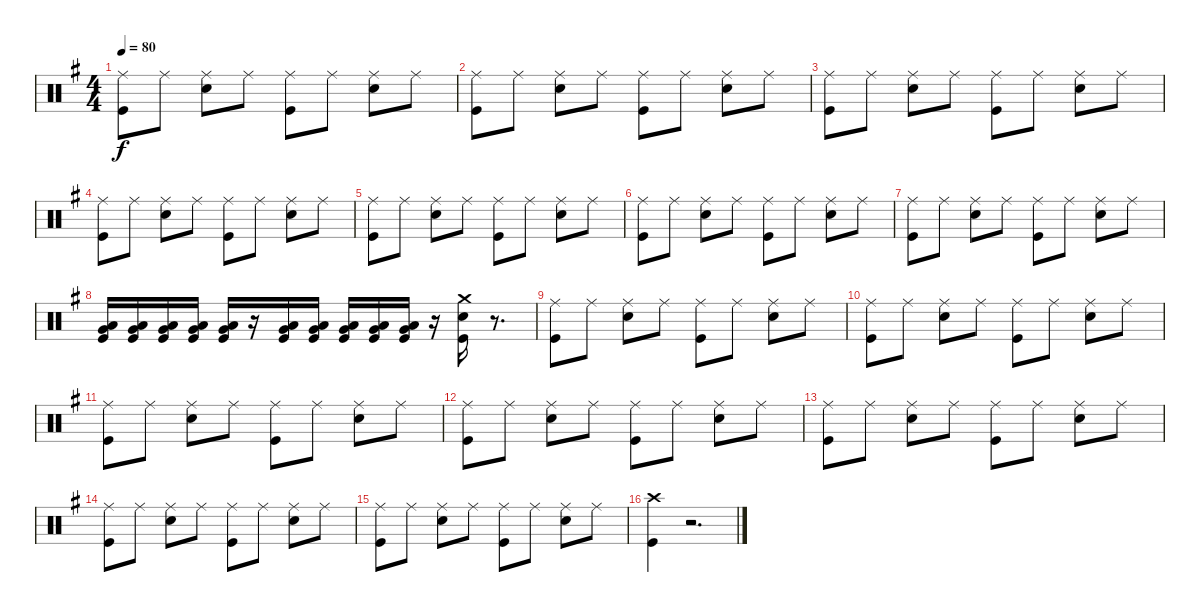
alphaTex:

\track "" {instrument percussion}
\staff {score}
\articulation defaults
\ts (4 4)
\tempo 80
\clef neutral
\ks g
("Ride (middle)" "Kick (hit)").8{dy f} "Ride (middle)".8 ("Ride (middle)" "Snare (hit) 2").8 "Ride (middle)".8 ("Ride (middle)" "Kick (hit)").8 "Ride (middle)".8 ("Ride (middle)" "Snare (hit) 2").8 "Ride (middle)".8 |
("Ride (middle)" "Kick (hit)").8 "Ride (middle)".8 ("Ride (middle)" "Snare (hit) 2").8 "Ride (middle)".8 ("Ride (middle)" "Kick (hit)").8 "Ride (middle)".8 ("Ride (middle)" "Snare (hit) 2").8 "Ride (middle)".8 |
("Ride (middle)" "Kick (hit)").8 "Ride (middle)".8 ("Ride (middle)" "Snare (hit) 2").8 "Ride (middle)".8 ("Ride (middle)" "Kick (hit)").8 "Ride (middle)".8 ("Ride (middle)" "Snare (hit) 2").8 "Ride (middle)".8 |
("Ride (middle)" "Kick (hit)").8 "Ride (middle)".8 ("Ride (middle)" "Snare (hit) 2").8 "Ride (middle)".8 ("Ride (middle)" "Kick (hit)").8 "Ride (middle)".8 ("Ride (middle)" "Snare (hit) 2").8 "Ride (middle)".8 |
("Ride (middle)" "Kick (hit)").8 "Ride (middle)".8 ("Ride (middle)" "Snare (hit) 2").8 "Ride (middle)".8 ("Ride (middle)" "Kick (hit)").8 "Ride (middle)".8 ("Ride (middle)" "Snare (hit) 2").8 "Ride (middle)".8 |
("Ride (middle)" "Kick (hit)").8 "Ride (middle)".8 ("Ride (middle)" "Snare (hit) 2").8 "Ride (middle)".8 ("Ride (middle)" "Kick (hit)").8 "Ride (middle)".8 ("Ride (middle)" "Snare (hit) 2").8 "Ride (middle)".8 |
("Ride (middle)" "Kick (hit)").8 "Ride (middle)".8 ("Ride (middle)" "Snare (hit) 2").8 "Ride (middle)".8 ("Ride (middle)" "Kick (hit)").8 "Ride (middle)".8 ("Ride (middle)" "Snare (hit) 2").8 "Ride (middle)".8 |
("Very Low Tom (hit)" "Low Floor Tom (hit)" "Kick (hit)").16 ("Very Low Tom (hit)" "Low Floor Tom (hit)" "Kick (hit)").16 ("Very Low Tom (hit)" "Low Floor Tom (hit)" "Kick (hit)").16 ("Very Low Tom (hit)" "Low Floor Tom (hit)" "Kick (hit)").16 ("Very Low Tom (hit)" "Low Floor Tom (hit)" "Kick (hit)").16 r.16 ("Very Low Tom (hit)" "Low Floor Tom (hit)" "Kick (hit)").16 ("Very Low Tom (hit)" "Low Floor Tom (hit)" "Kick (hit)").16 ("Very Low Tom (hit)" "Low Floor Tom (hit)" "Kick (hit)").16 ("Very Low Tom (hit)" "Low Floor Tom (hit)" "Kick (hit)").16 ("Very Low Tom (hit)" "Low Floor Tom (hit)" "Kick (hit)").16 r.16 ("Snare (hit) 2" "Crash medium (hit)" "Kick (hit)").16 r.8{d} |
("Ride (middle)" "Kick (hit)").8 "Ride (middle)".8 ("Ride (middle)" "Snare (hit) 2").8 "Ride (middle)".8 ("Ride (middle)" "Kick (hit)").8 "Ride (middle)".8 ("Ride (middle)" "Snare (hit) 2").8 "Ride (middle)".8 |
("Ride (middle)" "Kick (hit)").8 "Ride (middle)".8 ("Ride (middle)" "Snare (hit) 2").8 "Ride (middle)".8 ("Ride (middle)" "Kick (hit)").8 "Ride (middle)".8 ("Ride (middle)" "Snare (hit) 2").8 "Ride (middle)".8 |
("Ride (middle)" "Kick (hit)").8 "Ride (middle)".8 ("Ride (middle)" "Snare (hit) 2").8 "Ride (middle)".8 ("Ride (middle)" "Kick (hit)").8 "Ride (middle)".8 ("Ride (middle)" "Snare (hit) 2").8 "Ride (middle)".8 |
("Ride (middle)" "Kick (hit)").8 "Ride (middle)".8 ("Ride (middle)" "Snare (hit) 2").8 "Ride (middle)".8 ("Ride (middle)" "Kick (hit)").8 "Ride (middle)".8 ("Ride (middle)" "Snare (hit) 2").8 "Ride (middle)".8 |
("Ride (middle)" "Kick (hit)").8 "Ride (middle)".8 ("Ride (middle)" "Snare (hit) 2").8 "Ride (middle)".8 ("Ride (middle)" "Kick (hit)").8 "Ride (middle)".8 ("Ride (middle)" "Snare (hit) 2").8 "Ride (middle)".8 |
("Ride (middle)" "Kick (hit)").8 "Ride (middle)".8 ("Ride (middle)" "Snare (hit) 2").8 "Ride (middle)".8 ("Ride (middle)" "Kick (hit)").8 "Ride (middle)".8 ("Ride (middle)" "Snare (hit) 2").8 "Ride (middle)".8 |
("Ride (middle)" "Kick (hit)").8 "Ride (middle)".8 ("Ride (middle)" "Snare (hit) 2").8 "Ride (middle)".8 ("Ride (middle)" "Kick (hit)").8 "Ride (middle)".8 ("Ride (middle)" "Snare (hit) 2").8 "Ride (middle)".8 |
("Crash high (hit)" "Kick (hit)").4 r.2{d}
